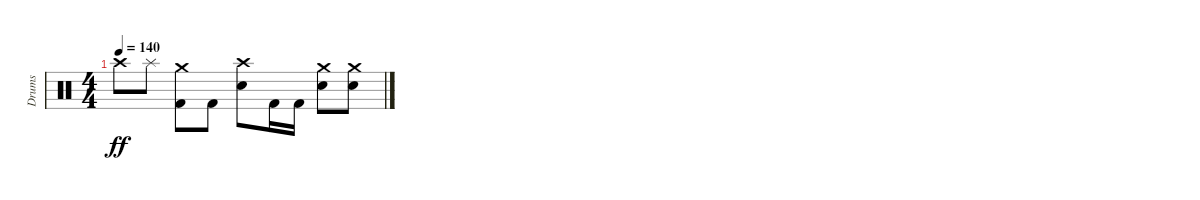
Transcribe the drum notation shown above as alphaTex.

\track ("Drums" "Drums") {instrument percussion}
\staff {score}
\articulation defaults
\ts (4 4)
\tempo 140
\clef neutral
\ks c "Crash high (hit)".8{dy ff} "Splash (hit)".8
("Crash medium (hit)" "Kick (hit) 2").8 "Kick (hit) 2".8 ("Crash high (hit)" "Electric Snare (hit)").8 "Kick (hit) 2".16 "Kick (hit) 2".16 ("Crash medium (hit)" "Electric Snare (hit)").8 ("Crash medium (hit)" "Electric Snare (hit)").8
